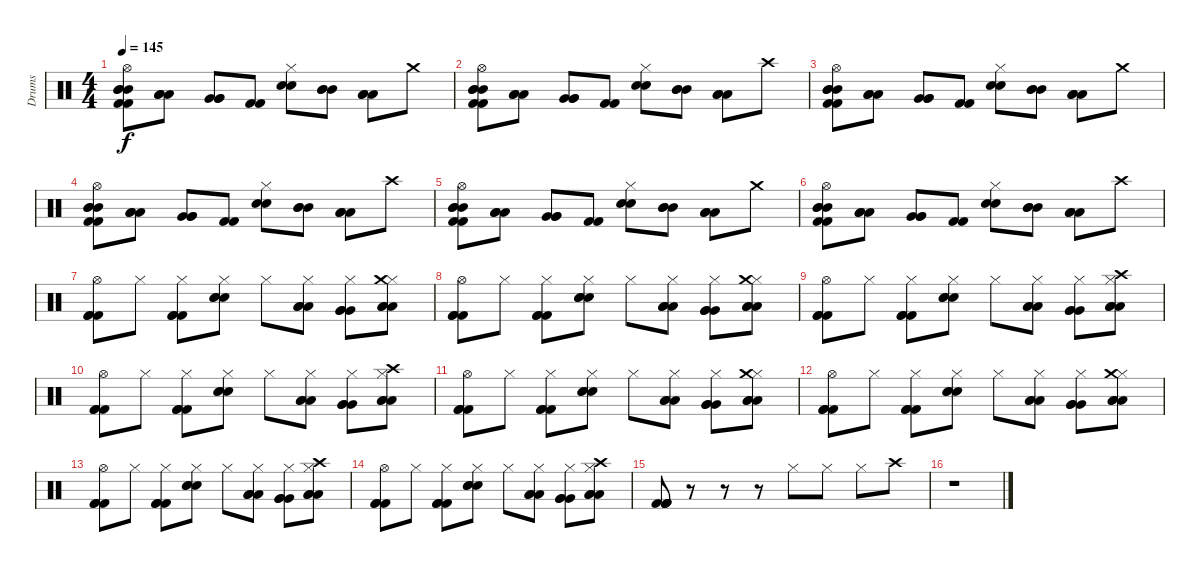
\track ("Drums" "Drums") {instrument percussion}
\staff {score}
\articulation defaults
\ts (4 4)
\tempo 145
\clef neutral
\ks c
("Hi-Hat (open)" "Mid Tom (hit)" "Mid Tom (hit)" "Mid Tom (hit)" "Kick (hit) 2" "Kick (hit) 2").8{dy f} ("Low Tom (hit)" "Low Tom (hit)" "Low Tom (hit)").8 ("Very Low Tom (hit)" "Very Low Tom (hit)" "Very Low Tom (hit)").8 ("Kick (hit) 2" "Kick (hit) 2").8 ("Hi-Hat (closed)" "Snare (hit) 2" "Snare (hit) 2").8 ("Mid Tom (hit)" "Mid Tom (hit)" "Mid Tom (hit)").8 ("Low Tom (hit)" "Low Tom (hit)" "Low Tom (hit)").8 "Crash medium (hit)".8 |
("Hi-Hat (open)" "Mid Tom (hit)" "Mid Tom (hit)" "Mid Tom (hit)" "Kick (hit) 2" "Kick (hit) 2").8 ("Low Tom (hit)" "Low Tom (hit)" "Low Tom (hit)").8 ("Very Low Tom (hit)" "Very Low Tom (hit)" "Very Low Tom (hit)").8 ("Kick (hit) 2" "Kick (hit) 2").8 ("Hi-Hat (closed)" "Snare (hit) 2" "Snare (hit) 2").8 ("Mid Tom (hit)" "Mid Tom (hit)" "Mid Tom (hit)").8 ("Low Tom (hit)" "Low Tom (hit)" "Low Tom (hit)").8 "Crash high (hit)".8 |
("Hi-Hat (open)" "Mid Tom (hit)" "Mid Tom (hit)" "Mid Tom (hit)" "Kick (hit) 2" "Kick (hit) 2").8 ("Low Tom (hit)" "Low Tom (hit)" "Low Tom (hit)").8 ("Very Low Tom (hit)" "Very Low Tom (hit)" "Very Low Tom (hit)").8 ("Kick (hit) 2" "Kick (hit) 2").8 ("Hi-Hat (closed)" "Snare (hit) 2" "Snare (hit) 2").8 ("Mid Tom (hit)" "Mid Tom (hit)" "Mid Tom (hit)").8 ("Low Tom (hit)" "Low Tom (hit)" "Low Tom (hit)").8 "Crash medium (hit)".8 |
("Hi-Hat (open)" "Mid Tom (hit)" "Mid Tom (hit)" "Mid Tom (hit)" "Kick (hit) 2" "Kick (hit) 2").8 ("Low Tom (hit)" "Low Tom (hit)" "Low Tom (hit)").8 ("Very Low Tom (hit)" "Very Low Tom (hit)" "Very Low Tom (hit)").8 ("Kick (hit) 2" "Kick (hit) 2").8 ("Hi-Hat (closed)" "Snare (hit) 2" "Snare (hit) 2").8 ("Mid Tom (hit)" "Mid Tom (hit)" "Mid Tom (hit)").8 ("Low Tom (hit)" "Low Tom (hit)" "Low Tom (hit)").8 "Crash high (hit)".8 |
("Hi-Hat (open)" "Mid Tom (hit)" "Mid Tom (hit)" "Mid Tom (hit)" "Kick (hit) 2" "Kick (hit) 2").8 ("Low Tom (hit)" "Low Tom (hit)" "Low Tom (hit)").8 ("Very Low Tom (hit)" "Very Low Tom (hit)" "Very Low Tom (hit)").8 ("Kick (hit) 2" "Kick (hit) 2").8 ("Hi-Hat (closed)" "Snare (hit) 2" "Snare (hit) 2").8 ("Mid Tom (hit)" "Mid Tom (hit)" "Mid Tom (hit)").8 ("Low Tom (hit)" "Low Tom (hit)" "Low Tom (hit)").8 "Crash medium (hit)".8 |
("Hi-Hat (open)" "Mid Tom (hit)" "Mid Tom (hit)" "Mid Tom (hit)" "Kick (hit) 2" "Kick (hit) 2").8 ("Low Tom (hit)" "Low Tom (hit)" "Low Tom (hit)").8 ("Very Low Tom (hit)" "Very Low Tom (hit)" "Very Low Tom (hit)").8 ("Kick (hit) 2" "Kick (hit) 2").8 ("Hi-Hat (closed)" "Snare (hit) 2" "Snare (hit) 2").8 ("Mid Tom (hit)" "Mid Tom (hit)" "Mid Tom (hit)").8 ("Low Tom (hit)" "Low Tom (hit)" "Low Tom (hit)").8 "Crash high (hit)".8 |
("Hi-Hat (open)" "Kick (hit) 2" "Kick (hit) 2" "Kick (hit) 2").8{volume 15} "Hi-Hat (closed)".8 ("Hi-Hat (closed)" "Kick (hit) 2" "Kick (hit) 2" "Kick (hit) 2").8 ("Hi-Hat (closed)" "Snare (hit) 2" "Snare (hit) 2" "Snare (hit) 2").8 "Hi-Hat (closed)".8 ("Hi-Hat (closed)" "Low Floor Tom (hit)" "Low Floor Tom (hit)" "Low Floor Tom (hit)").8 ("Hi-Hat (closed)" "Very Low Tom (hit)" "Very Low Tom (hit)" "Very Low Tom (hit)").8 ("Hi-Hat (closed)" "Crash medium (hit)" "Low Floor Tom (hit)" "Low Floor Tom (hit)" "Low Floor Tom (hit)").8 |
("Hi-Hat (open)" "Kick (hit) 2" "Kick (hit) 2" "Kick (hit) 2").8 "Hi-Hat (closed)".8 ("Hi-Hat (closed)" "Kick (hit) 2" "Kick (hit) 2" "Kick (hit) 2").8 ("Hi-Hat (closed)" "Snare (hit) 2" "Snare (hit) 2" "Snare (hit) 2").8 "Hi-Hat (closed)".8 ("Hi-Hat (closed)" "Low Floor Tom (hit)" "Low Floor Tom (hit)" "Low Floor Tom (hit)").8 ("Hi-Hat (closed)" "Very Low Tom (hit)" "Very Low Tom (hit)" "Very Low Tom (hit)").8 ("Hi-Hat (closed)" "Crash medium (hit)" "Low Floor Tom (hit)" "Low Floor Tom (hit)" "Low Floor Tom (hit)").8 |
("Hi-Hat (open)" "Kick (hit) 2" "Kick (hit) 2" "Kick (hit) 2").8 "Hi-Hat (closed)".8 ("Hi-Hat (closed)" "Kick (hit) 2" "Kick (hit) 2" "Kick (hit) 2").8 ("Hi-Hat (closed)" "Snare (hit) 2" "Snare (hit) 2" "Snare (hit) 2").8 "Hi-Hat (closed)".8 ("Hi-Hat (closed)" "Low Floor Tom (hit)" "Low Floor Tom (hit)" "Low Floor Tom (hit)").8 ("Hi-Hat (closed)" "Very Low Tom (hit)" "Very Low Tom (hit)" "Very Low Tom (hit)").8 ("Hi-Hat (closed)" "Crash high (hit)" "Low Floor Tom (hit)" "Low Floor Tom (hit)" "Low Floor Tom (hit)").8 |
("Hi-Hat (open)" "Kick (hit) 2" "Kick (hit) 2" "Kick (hit) 2").8 "Hi-Hat (closed)".8 ("Hi-Hat (closed)" "Kick (hit) 2" "Kick (hit) 2" "Kick (hit) 2").8 ("Hi-Hat (closed)" "Snare (hit) 2" "Snare (hit) 2" "Snare (hit) 2").8 "Hi-Hat (closed)".8 ("Hi-Hat (closed)" "Low Floor Tom (hit)" "Low Floor Tom (hit)" "Low Floor Tom (hit)").8 ("Hi-Hat (closed)" "Very Low Tom (hit)" "Very Low Tom (hit)" "Very Low Tom (hit)").8 ("Hi-Hat (closed)" "Crash high (hit)" "Low Floor Tom (hit)" "Low Floor Tom (hit)" "Low Floor Tom (hit)").8 |
("Hi-Hat (open)" "Kick (hit) 2" "Kick (hit) 2" "Kick (hit) 2").8 "Hi-Hat (closed)".8 ("Hi-Hat (closed)" "Kick (hit) 2" "Kick (hit) 2" "Kick (hit) 2").8 ("Hi-Hat (closed)" "Snare (hit) 2" "Snare (hit) 2" "Snare (hit) 2").8 "Hi-Hat (closed)".8 ("Hi-Hat (closed)" "Low Floor Tom (hit)" "Low Floor Tom (hit)" "Low Floor Tom (hit)").8 ("Hi-Hat (closed)" "Very Low Tom (hit)" "Very Low Tom (hit)" "Very Low Tom (hit)").8 ("Hi-Hat (closed)" "Crash medium (hit)" "Low Floor Tom (hit)" "Low Floor Tom (hit)" "Low Floor Tom (hit)").8 |
("Hi-Hat (open)" "Kick (hit) 2" "Kick (hit) 2" "Kick (hit) 2").8 "Hi-Hat (closed)".8 ("Hi-Hat (closed)" "Kick (hit) 2" "Kick (hit) 2" "Kick (hit) 2").8 ("Hi-Hat (closed)" "Snare (hit) 2" "Snare (hit) 2" "Snare (hit) 2").8 "Hi-Hat (closed)".8 ("Hi-Hat (closed)" "Low Floor Tom (hit)" "Low Floor Tom (hit)" "Low Floor Tom (hit)").8 ("Hi-Hat (closed)" "Very Low Tom (hit)" "Very Low Tom (hit)" "Very Low Tom (hit)").8 ("Hi-Hat (closed)" "Crash medium (hit)" "Low Floor Tom (hit)" "Low Floor Tom (hit)" "Low Floor Tom (hit)").8 |
("Hi-Hat (open)" "Kick (hit) 2" "Kick (hit) 2" "Kick (hit) 2").8 "Hi-Hat (closed)".8 ("Hi-Hat (closed)" "Kick (hit) 2" "Kick (hit) 2" "Kick (hit) 2").8 ("Hi-Hat (closed)" "Snare (hit) 2" "Snare (hit) 2" "Snare (hit) 2").8 "Hi-Hat (closed)".8 ("Hi-Hat (closed)" "Low Floor Tom (hit)" "Low Floor Tom (hit)" "Low Floor Tom (hit)").8 ("Hi-Hat (closed)" "Very Low Tom (hit)" "Very Low Tom (hit)" "Very Low Tom (hit)").8 ("Hi-Hat (closed)" "Crash high (hit)" "Low Floor Tom (hit)" "Low Floor Tom (hit)" "Low Floor Tom (hit)").8 |
("Hi-Hat (open)" "Kick (hit) 2" "Kick (hit) 2" "Kick (hit) 2").8 "Hi-Hat (closed)".8 ("Hi-Hat (closed)" "Kick (hit) 2" "Kick (hit) 2" "Kick (hit) 2").8 ("Hi-Hat (closed)" "Snare (hit) 2" "Snare (hit) 2" "Snare (hit) 2").8 "Hi-Hat (closed)".8 ("Hi-Hat (closed)" "Low Floor Tom (hit)" "Low Floor Tom (hit)" "Low Floor Tom (hit)").8 ("Hi-Hat (closed)" "Very Low Tom (hit)" "Very Low Tom (hit)" "Very Low Tom (hit)").8 ("Hi-Hat (closed)" "Crash high (hit)" "Low Floor Tom (hit)" "Low Floor Tom (hit)" "Low Floor Tom (hit)").8 |
("Kick (hit) 2" "Kick (hit) 2" "Kick (hit) 2" "Kick (hit) 2").8 r.8 r.8 r.8 "Hi-Hat (closed)".8 "Hi-Hat (closed)".8 "Hi-Hat (closed)".8 "Crash high (hit)".8 |
r.1
